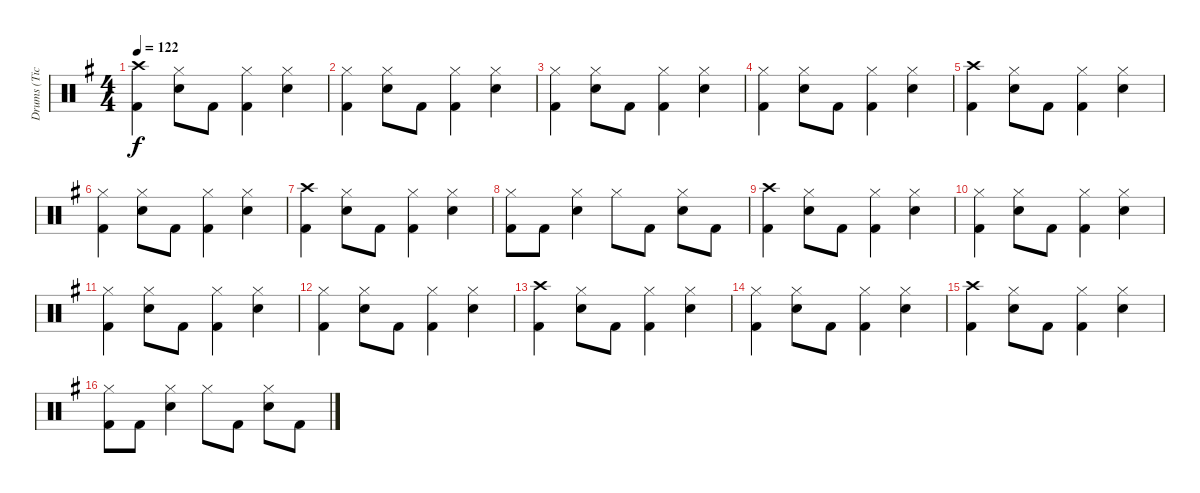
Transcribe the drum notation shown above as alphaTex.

\track ("Drums (Tico Torres)" "Drums (Tic") {instrument percussion}
\staff {score}
\articulation defaults
\ts (4 4)
\tempo 122
\clef neutral
\ks eminor
("Crash high (hit)" "Kick (hit) 2").4{dy f} ("Hi-Hat (closed)" "Snare (hit) 2").8 "Kick (hit) 2".8 ("Hi-Hat (closed)" "Kick (hit) 2").4 ("Hi-Hat (closed)" "Snare (hit) 2").4 |
("Hi-Hat (closed)" "Kick (hit) 2").4 ("Hi-Hat (closed)" "Snare (hit) 2").8 "Kick (hit) 2".8 ("Hi-Hat (closed)" "Kick (hit) 2").4 ("Hi-Hat (closed)" "Snare (hit) 2").4 |
("Hi-Hat (closed)" "Kick (hit) 2").4 ("Hi-Hat (closed)" "Snare (hit) 2").8 "Kick (hit) 2".8 ("Hi-Hat (closed)" "Kick (hit) 2").4 ("Hi-Hat (closed)" "Snare (hit) 2").4 |
("Hi-Hat (closed)" "Kick (hit) 2").4 ("Hi-Hat (closed)" "Snare (hit) 2").8 "Kick (hit) 2".8 ("Hi-Hat (closed)" "Kick (hit) 2").4 ("Hi-Hat (closed)" "Snare (hit) 2").4 |
("Crash high (hit)" "Kick (hit) 2").4 ("Hi-Hat (closed)" "Snare (hit) 2").8 "Kick (hit) 2".8 ("Hi-Hat (closed)" "Kick (hit) 2").4 ("Hi-Hat (closed)" "Snare (hit) 2").4 |
("Hi-Hat (closed)" "Kick (hit) 2").4 ("Hi-Hat (closed)" "Snare (hit) 2").8 "Kick (hit) 2".8 ("Hi-Hat (closed)" "Kick (hit) 2").4 ("Hi-Hat (closed)" "Snare (hit) 2").4 |
("Crash high (hit)" "Kick (hit) 2").4 ("Hi-Hat (closed)" "Snare (hit) 2").8 "Kick (hit) 2".8 ("Hi-Hat (closed)" "Kick (hit) 2").4 ("Hi-Hat (closed)" "Snare (hit) 2").4 |
("Hi-Hat (closed)" "Kick (hit) 2").8 "Kick (hit) 2".8 ("Hi-Hat (closed)" "Snare (hit) 2").4 "Hi-Hat (closed)".8 "Kick (hit) 2".8 ("Hi-Hat (closed)" "Snare (hit) 2").8 "Kick (hit) 2".8 |
("Crash high (hit)" "Kick (hit) 2").4 ("Hi-Hat (closed)" "Snare (hit) 2").8 "Kick (hit) 2".8 ("Hi-Hat (closed)" "Kick (hit) 2").4 ("Hi-Hat (closed)" "Snare (hit) 2").4 |
("Hi-Hat (closed)" "Kick (hit) 2").4 ("Hi-Hat (closed)" "Snare (hit) 2").8 "Kick (hit) 2".8 ("Hi-Hat (closed)" "Kick (hit) 2").4 ("Hi-Hat (closed)" "Snare (hit) 2").4 |
("Hi-Hat (closed)" "Kick (hit) 2").4 ("Hi-Hat (closed)" "Snare (hit) 2").8 "Kick (hit) 2".8 ("Hi-Hat (closed)" "Kick (hit) 2").4 ("Hi-Hat (closed)" "Snare (hit) 2").4 |
("Hi-Hat (closed)" "Kick (hit) 2").4 ("Hi-Hat (closed)" "Snare (hit) 2").8 "Kick (hit) 2".8 ("Hi-Hat (closed)" "Kick (hit) 2").4 ("Hi-Hat (closed)" "Snare (hit) 2").4 |
("Crash high (hit)" "Kick (hit) 2").4 ("Hi-Hat (closed)" "Snare (hit) 2").8 "Kick (hit) 2".8 ("Hi-Hat (closed)" "Kick (hit) 2").4 ("Hi-Hat (closed)" "Snare (hit) 2").4 |
("Hi-Hat (closed)" "Kick (hit) 2").4 ("Hi-Hat (closed)" "Snare (hit) 2").8 "Kick (hit) 2".8 ("Hi-Hat (closed)" "Kick (hit) 2").4 ("Hi-Hat (closed)" "Snare (hit) 2").4 |
("Crash high (hit)" "Kick (hit) 2").4 ("Hi-Hat (closed)" "Snare (hit) 2").8 "Kick (hit) 2".8 ("Hi-Hat (closed)" "Kick (hit) 2").4 ("Hi-Hat (closed)" "Snare (hit) 2").4 |
("Hi-Hat (closed)" "Kick (hit) 2").8 "Kick (hit) 2".8 ("Hi-Hat (closed)" "Snare (hit) 2").4 "Hi-Hat (closed)".8 "Kick (hit) 2".8 ("Hi-Hat (closed)" "Snare (hit) 2").8 "Kick (hit) 2".8
